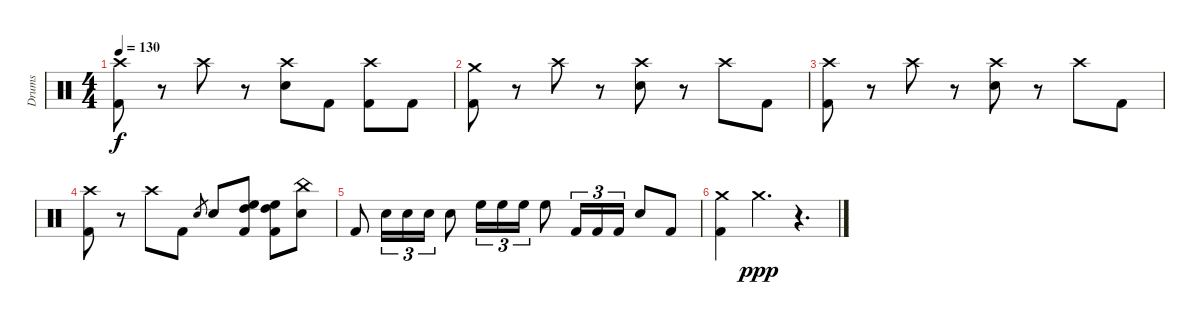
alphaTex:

\track ("Drums" "Drums") {instrument percussion}
\staff
\articulation defaults
\ts (4 4)
\tempo 130
\clef neutral
\ks c
("Crash high (hit)" "Kick (hit) 2").8{dy f} r.8 "Crash high (hit)".8 r.8 ("Crash high (hit)" "Electric Snare (hit)").8 "Kick (hit) 2".8 ("Crash high (hit)" "Kick (hit) 2").8 "Kick (hit) 2".8 |
("Crash medium (hit)" "Kick (hit) 2").8 r.8 "Crash high (hit)".8 r.8 ("Crash high (hit)" "Electric Snare (hit)").8 r.8 "Crash high (hit)".8 "Kick (hit) 2".8 |
("Crash high (hit)" "Kick (hit) 2").8 r.8 "Crash high (hit)".8 r.8 ("Crash high (hit)" "Electric Snare (hit)").8 r.8 "Crash high (hit)".8 "Kick (hit) 2".8 |
("Crash high (hit)" "Kick (hit) 2").8 r.8 "Crash high (hit)".8 "Kick (hit) 2".8 "Electric Snare (hit)".8{gr} "Electric Snare (hit)".8 ("High Floor Tom (hit)" "High Tom (hit)" "Kick (hit) 2").8 ("High Floor Tom (hit)" "High Tom (hit)" "Kick (hit) 2").8 ("China (hit)" "Electric Snare (hit)").8 |
"Kick (hit) 2".8 "Electric Snare (hit)".16{tu (3 2)} "Electric Snare (hit)".16{tu (3 2)} "Electric Snare (hit)".16{tu (3 2)} "Electric Snare (hit)".8 "High Floor Tom (hit)".16{tu (3 2)} "High Floor Tom (hit)".16{tu (3 2)} "High Floor Tom (hit)".16{tu (3 2)} "High Floor Tom (hit)".8 "Kick (hit) 2".16{tu (3 2)} "Kick (hit) 2".16{tu (3 2)} "Kick (hit) 2".16{tu (3 2)} "Electric Snare (hit)".8 "Kick (hit) 2".8 |
("Crash medium (hit)" "Kick (hit) 2").4 "Crash medium (hit)".4{d dy ppp} r.4{d}
